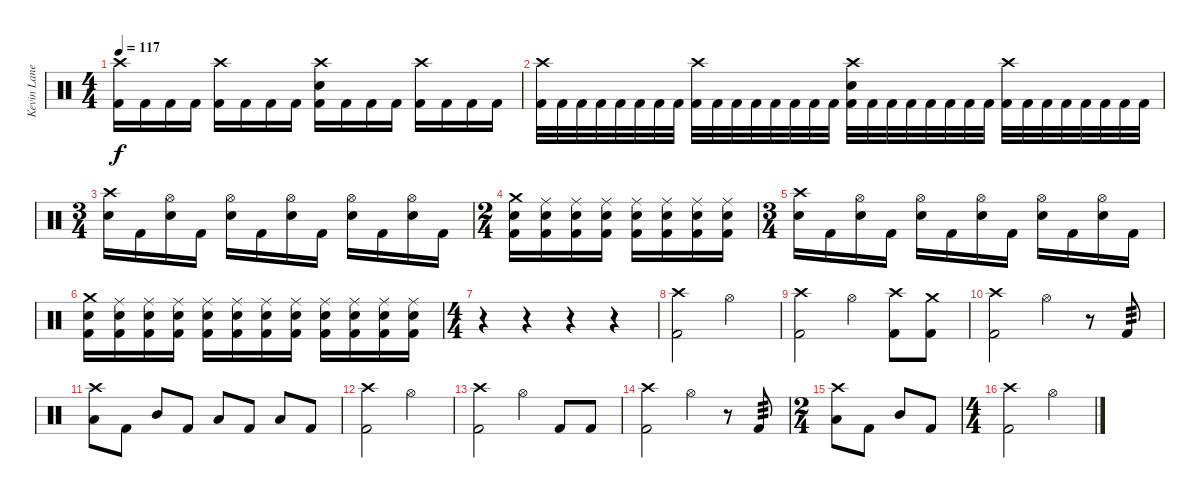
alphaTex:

\track ("Kevin Lane" "Kevin Lane") {instrument percussion}
\staff {score}
\articulation defaults
\ts (4 4)
\tempo 117
\clef neutral
\ks c
("Crash high (hit)" "Kick (hit) 2").16{dy f} "Kick (hit) 2".16 "Kick (hit) 2".16 "Kick (hit) 2".16 ("Crash high (hit)" "Kick (hit) 2").16 "Kick (hit) 2".16 "Kick (hit) 2".16 "Kick (hit) 2".16 ("Crash high (hit)" "Electric Snare (hit)" "Kick (hit) 2").16 "Kick (hit) 2".16 "Kick (hit) 2".16 "Kick (hit) 2".16 ("Crash high (hit)" "Kick (hit) 2").16 "Kick (hit) 2".16 "Kick (hit) 2".16 "Kick (hit) 2".16 |
("Crash high (hit)" "Kick (hit) 2").32 "Kick (hit) 2".32 "Kick (hit) 2".32 "Kick (hit) 2".32 "Kick (hit) 2".32 "Kick (hit) 2".32 "Kick (hit) 2".32 "Kick (hit) 2".32 ("Crash high (hit)" "Kick (hit) 2").32 "Kick (hit) 2".32 "Kick (hit) 2".32 "Kick (hit) 2".32 "Kick (hit) 2".32 "Kick (hit) 2".32 "Kick (hit) 2".32 "Kick (hit) 2".32 ("Crash high (hit)" "Electric Snare (hit)" "Kick (hit) 2").32 "Kick (hit) 2".32 "Kick (hit) 2".32 "Kick (hit) 2".32 "Kick (hit) 2".32 "Kick (hit) 2".32 "Kick (hit) 2".32 "Kick (hit) 2".32 ("Crash high (hit)" "Kick (hit) 2").32 "Kick (hit) 2".32 "Kick (hit) 2".32 "Kick (hit) 2".32 "Kick (hit) 2".32 "Kick (hit) 2".32 "Kick (hit) 2".32 "Kick (hit) 2".32 |
\ts (3 4)
("Crash high (hit)" "Electric Snare (hit)").16 "Kick (hit) 2".16 ("Hi-Hat (open)" "Electric Snare (hit)").16 "Kick (hit) 2".16 ("Hi-Hat (open)" "Electric Snare (hit)").16 "Kick (hit) 2".16 ("Hi-Hat (open)" "Electric Snare (hit)").16 "Kick (hit) 2".16 ("Hi-Hat (open)" "Electric Snare (hit)").16 "Kick (hit) 2".16 ("Hi-Hat (open)" "Electric Snare (hit)").16 "Kick (hit) 2".16 |
\ts (2 4)
("Crash medium (hit)" "Electric Snare (hit)" "Kick (hit) 2").16 ("Ride (middle)" "Electric Snare (hit)" "Kick (hit) 2").16 ("Ride (middle)" "Electric Snare (hit)" "Kick (hit) 2").16 ("Ride (middle)" "Electric Snare (hit)" "Kick (hit) 2").16 ("Ride (middle)" "Electric Snare (hit)" "Kick (hit) 2").16 ("Ride (middle)" "Electric Snare (hit)" "Kick (hit) 2").16 ("Ride (middle)" "Electric Snare (hit)" "Kick (hit) 2").16 ("Ride (middle)" "Electric Snare (hit)" "Kick (hit) 2").16 |
\ts (3 4)
("Crash high (hit)" "Electric Snare (hit)").16 "Kick (hit) 2".16 ("Hi-Hat (open)" "Electric Snare (hit)").16 "Kick (hit) 2".16 ("Hi-Hat (open)" "Electric Snare (hit)").16 "Kick (hit) 2".16 ("Hi-Hat (open)" "Electric Snare (hit)").16 "Kick (hit) 2".16 ("Hi-Hat (open)" "Electric Snare (hit)").16 "Kick (hit) 2".16 ("Hi-Hat (open)" "Electric Snare (hit)").16 "Kick (hit) 2".16 |
("Crash medium (hit)" "Electric Snare (hit)" "Kick (hit) 2").16 ("Ride (middle)" "Electric Snare (hit)" "Kick (hit) 2").16 ("Ride (middle)" "Electric Snare (hit)" "Kick (hit) 2").16 ("Ride (middle)" "Electric Snare (hit)" "Kick (hit) 2").16 ("Ride (middle)" "Electric Snare (hit)" "Kick (hit) 2").16 ("Ride (middle)" "Electric Snare (hit)" "Kick (hit) 2").16 ("Ride (middle)" "Electric Snare (hit)" "Kick (hit) 2").16 ("Ride (middle)" "Electric Snare (hit)" "Kick (hit) 2").16 ("Ride (middle)" "Electric Snare (hit)" "Kick (hit) 2").16 ("Ride (middle)" "Electric Snare (hit)" "Kick (hit) 2").16 ("Ride (middle)" "Electric Snare (hit)" "Kick (hit) 2").16 ("Ride (middle)" "Electric Snare (hit)" "Kick (hit) 2").16 |
\ts (4 4)
r.4 r.4 r.4 r.4 |
("Crash high (hit)" "Kick (hit) 2").2 "Hi-Hat (open)".2 |
("Crash high (hit)" "Kick (hit) 2").2 "Hi-Hat (open)".4 ("Crash high (hit)" "Kick (hit) 2").8 ("Crash medium (hit)" "Kick (hit) 2").8 |
("Crash high (hit)" "Kick (hit) 2").2 "Hi-Hat (open)".4 r.8 "Kick (hit) 2".8{tp 3} |
("Crash high (hit)" "Low Tom (hit)").8 "Kick (hit) 2".8 "Mid Tom (hit)".8 "Kick (hit) 2".8 "Low Tom (hit)".8 "Kick (hit) 2".8 "Low Floor Tom (hit)".8 "Kick (hit) 2".8 |
("Crash high (hit)" "Kick (hit) 2").2 "Hi-Hat (open)".2 |
("Crash high (hit)" "Kick (hit) 2").2 "Hi-Hat (open)".4 "Kick (hit) 2".8 "Kick (hit) 2".8 |
("Crash high (hit)" "Kick (hit) 2").2 "Hi-Hat (open)".4 r.8 "Kick (hit) 2".8{tp 3} |
\ts (2 4)
("Crash high (hit)" "Low Tom (hit)").8 "Kick (hit) 2".8 "Mid Tom (hit)".8 "Kick (hit) 2".8 |
\ts (4 4)
("Crash high (hit)" "Kick (hit) 2").2 "Hi-Hat (open)".2
